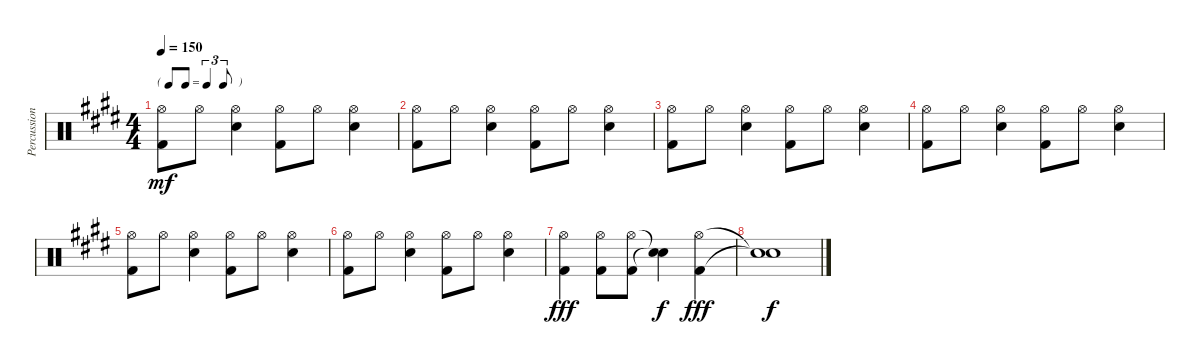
\track ("Percussion" "Percussion") {instrument percussion}
\staff {score}
\articulation defaults
\ts (4 4)
\tf triplet8th
\tempo 150
\clef neutral
\ks e
("Hi-Hat (open)" "Kick (hit) 2").8{dy mf} "Hi-Hat (open)".8 ("Hi-Hat (open)" "Snare (hit) 2").4 ("Hi-Hat (open)" "Kick (hit) 2").8 "Hi-Hat (open)".8 ("Hi-Hat (open)" "Snare (hit) 2").4 |
("Hi-Hat (open)" "Kick (hit) 2").8 "Hi-Hat (open)".8 ("Hi-Hat (open)" "Snare (hit) 2").4 ("Hi-Hat (open)" "Kick (hit) 2").8 "Hi-Hat (open)".8 ("Hi-Hat (open)" "Snare (hit) 2").4 |
("Hi-Hat (open)" "Kick (hit) 2").8 "Hi-Hat (open)".8 ("Hi-Hat (open)" "Snare (hit) 2").4 ("Hi-Hat (open)" "Kick (hit) 2").8 "Hi-Hat (open)".8 ("Hi-Hat (open)" "Snare (hit) 2").4 |
("Hi-Hat (open)" "Kick (hit) 2").8 "Hi-Hat (open)".8 ("Hi-Hat (open)" "Snare (hit) 2").4 ("Hi-Hat (open)" "Kick (hit) 2").8 "Hi-Hat (open)".8 ("Hi-Hat (open)" "Snare (hit) 2").4 |
("Hi-Hat (open)" "Kick (hit) 2").8 "Hi-Hat (open)".8 ("Hi-Hat (open)" "Snare (hit) 2").4 ("Hi-Hat (open)" "Kick (hit) 2").8 "Hi-Hat (open)".8 ("Hi-Hat (open)" "Snare (hit) 2").4 |
("Hi-Hat (open)" "Kick (hit) 2").8 "Hi-Hat (open)".8 ("Hi-Hat (open)" "Snare (hit) 2").4 ("Hi-Hat (open)" "Kick (hit) 2").8 "Hi-Hat (open)".8 ("Hi-Hat (open)" "Snare (hit) 2").4 |
("Hi-Hat (open)" "Kick (hit) 2").4{dy fff} ("Hi-Hat (open)" "Kick (hit) 2").8 ("Hi-Hat (open)" "Kick (hit) 2").8 ("Snare (hit)"{t} "Snare (hit)"{t}).4{dy f} ("Hi-Hat (open)" "Kick (hit) 2").4{dy fff} |
("Snare (hit)"{t} "Snare (hit)"{t}).1{dy f}
